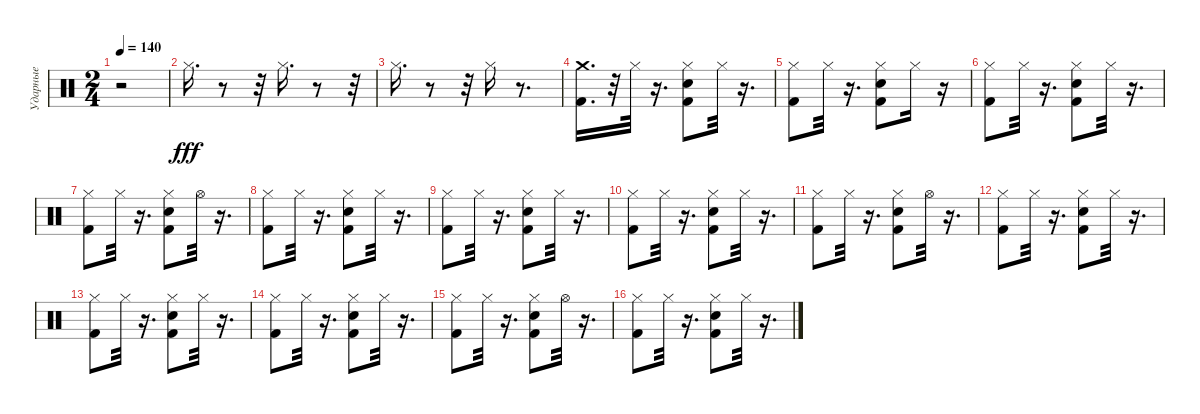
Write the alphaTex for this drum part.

\track ("Ударные" "Ударные") {instrument percussion}
\staff {score}
\articulation defaults
\ts (2 4)
\tempo 140
\clef neutral
\ks c
r.2{dy fff} |
"Hi-Hat (closed)".16{d balance 8} r.8 r.32 "Hi-Hat (closed)".16{d} r.8 r.32 |
"Hi-Hat (closed)".16{d} r.8 r.32 "Hi-Hat (closed)".16 r.8{d} |
("Kick (hit) 2" "Crash medium (hit)").16{d} r.32 "Hi-Hat (closed)".32 r.16{d} ("Kick (hit) 2" "Snare (hit) 2" "Hi-Hat (closed)").8 "Hi-Hat (closed)".32 r.16{d} |
("Kick (hit) 2" "Hi-Hat (closed)").8 "Hi-Hat (closed)".32 r.16{d} ("Snare (hit) 2" "Kick (hit) 2" "Hi-Hat (closed)").8 "Hi-Hat (closed)".16 r.16 |
("Kick (hit) 2" "Hi-Hat (closed)").8 "Hi-Hat (closed)".32 r.16{d} ("Kick (hit) 2" "Hi-Hat (closed)" "Snare (hit) 2").8 "Hi-Hat (closed)".32 r.16{d} |
("Kick (hit) 2" "Hi-Hat (closed)").8 "Hi-Hat (closed)".32 r.16{d} ("Hi-Hat (closed)" "Kick (hit) 2" "Snare (hit) 2").8 "Hi-Hat (open)".32 r.16{d} |
("Kick (hit) 2" "Hi-Hat (closed)").8 "Hi-Hat (closed)".32 r.16{d} ("Kick (hit) 2" "Hi-Hat (closed)" "Snare (hit) 2").8 "Hi-Hat (closed)".32 r.16{d} |
("Kick (hit) 2" "Hi-Hat (closed)").8 "Hi-Hat (closed)".32 r.16{d} ("Hi-Hat (closed)" "Snare (hit) 2" "Kick (hit) 2").8 "Hi-Hat (closed)".32 r.16{d} |
("Kick (hit) 2" "Hi-Hat (closed)").8 "Hi-Hat (closed)".32 r.16{d} ("Snare (hit) 2" "Kick (hit) 2" "Hi-Hat (closed)").8 "Hi-Hat (closed)".32 r.16{d} |
("Kick (hit) 2" "Hi-Hat (closed)").8 "Hi-Hat (closed)".32 r.16{d} ("Hi-Hat (closed)" "Snare (hit) 2" "Kick (hit) 2").8 "Hi-Hat (open)".32 r.16{d} |
("Kick (hit) 2" "Hi-Hat (closed)").8 "Hi-Hat (closed)".32 r.16{d} ("Hi-Hat (closed)" "Snare (hit) 2" "Kick (hit) 2").8 "Hi-Hat (closed)".32 r.16{d} |
("Kick (hit) 2" "Hi-Hat (closed)").8 "Hi-Hat (closed)".32 r.16{d} ("Kick (hit) 2" "Hi-Hat (closed)" "Snare (hit) 2").8 "Hi-Hat (closed)".32 r.16{d} |
("Kick (hit) 2" "Hi-Hat (closed)").8 "Hi-Hat (closed)".32 r.16{d} ("Snare (hit) 2" "Kick (hit) 2" "Hi-Hat (closed)").8 "Hi-Hat (closed)".32 r.16{d} |
("Kick (hit) 2" "Hi-Hat (closed)").8 "Hi-Hat (closed)".32 r.16{d} ("Snare (hit) 2" "Kick (hit) 2" "Hi-Hat (closed)").8 "Hi-Hat (open)".32 r.16{d} |
("Kick (hit) 2" "Hi-Hat (closed)").8 "Hi-Hat (closed)".32 r.16{d} ("Snare (hit) 2" "Kick (hit) 2" "Hi-Hat (closed)").8 "Hi-Hat (closed)".32 r.16{d}
